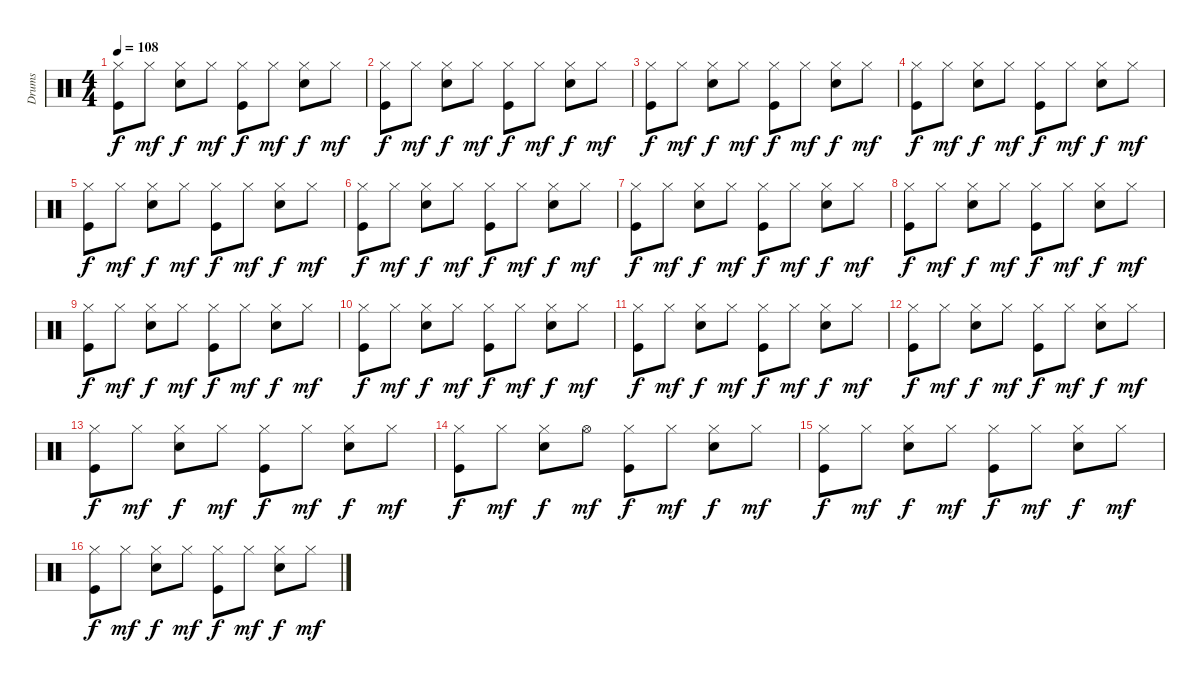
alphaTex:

\track ("Drums" "Drums") {instrument percussion}
\staff {score}
\articulation defaults
\ts (4 4)
\tempo 108
\clef neutral
\ks c
("Hi-Hat (closed)" "Kick (hit)").8{dy f} "Hi-Hat (closed)".8{dy mf} ("Hi-Hat (closed)" "Electric Snare (hit)").8{dy f} "Hi-Hat (closed)".8{dy mf} ("Hi-Hat (closed)" "Kick (hit)").8{dy f} "Hi-Hat (closed)".8{dy mf} ("Hi-Hat (closed)" "Electric Snare (hit)").8{dy f} "Hi-Hat (closed)".8{dy mf} |
("Hi-Hat (closed)" "Kick (hit)").8{dy f} "Hi-Hat (closed)".8{dy mf} ("Hi-Hat (closed)" "Electric Snare (hit)").8{dy f} "Hi-Hat (closed)".8{dy mf} ("Hi-Hat (closed)" "Kick (hit)").8{dy f} "Hi-Hat (closed)".8{dy mf} ("Hi-Hat (closed)" "Electric Snare (hit)").8{dy f} "Hi-Hat (closed)".8{dy mf} |
("Hi-Hat (closed)" "Kick (hit)").8{dy f} "Hi-Hat (closed)".8{dy mf} ("Hi-Hat (closed)" "Electric Snare (hit)").8{dy f} "Hi-Hat (closed)".8{dy mf} ("Hi-Hat (closed)" "Kick (hit)").8{dy f} "Hi-Hat (closed)".8{dy mf} ("Hi-Hat (closed)" "Electric Snare (hit)").8{dy f} "Hi-Hat (closed)".8{dy mf} |
("Hi-Hat (closed)" "Kick (hit)").8{dy f} "Hi-Hat (closed)".8{dy mf} ("Hi-Hat (closed)" "Electric Snare (hit)").8{dy f} "Hi-Hat (closed)".8{dy mf} ("Hi-Hat (closed)" "Kick (hit)").8{dy f} "Hi-Hat (closed)".8{dy mf} ("Hi-Hat (closed)" "Electric Snare (hit)").8{dy f} "Hi-Hat (closed)".8{dy mf} |
("Hi-Hat (closed)" "Kick (hit)").8{dy f} "Hi-Hat (closed)".8{dy mf} ("Hi-Hat (closed)" "Electric Snare (hit)").8{dy f} "Hi-Hat (closed)".8{dy mf} ("Hi-Hat (closed)" "Kick (hit)").8{dy f} "Hi-Hat (closed)".8{dy mf} ("Hi-Hat (closed)" "Electric Snare (hit)").8{dy f} "Hi-Hat (closed)".8{dy mf} |
("Hi-Hat (closed)" "Kick (hit)").8{dy f} "Hi-Hat (closed)".8{dy mf} ("Hi-Hat (closed)" "Electric Snare (hit)").8{dy f} "Hi-Hat (closed)".8{dy mf} ("Hi-Hat (closed)" "Kick (hit)").8{dy f} "Hi-Hat (closed)".8{dy mf} ("Hi-Hat (closed)" "Electric Snare (hit)").8{dy f} "Hi-Hat (closed)".8{dy mf} |
("Hi-Hat (closed)" "Kick (hit)").8{dy f} "Hi-Hat (closed)".8{dy mf} ("Hi-Hat (closed)" "Electric Snare (hit)").8{dy f} "Hi-Hat (closed)".8{dy mf} ("Hi-Hat (closed)" "Kick (hit)").8{dy f} "Hi-Hat (closed)".8{dy mf} ("Hi-Hat (closed)" "Electric Snare (hit)").8{dy f} "Hi-Hat (closed)".8{dy mf} |
("Hi-Hat (closed)" "Kick (hit)").8{dy f} "Hi-Hat (closed)".8{dy mf} ("Hi-Hat (closed)" "Electric Snare (hit)").8{dy f} "Hi-Hat (closed)".8{dy mf} ("Hi-Hat (closed)" "Kick (hit)").8{dy f} "Hi-Hat (closed)".8{dy mf} ("Hi-Hat (closed)" "Electric Snare (hit)").8{dy f} "Hi-Hat (closed)".8{dy mf} |
("Hi-Hat (closed)" "Kick (hit)").8{dy f} "Hi-Hat (closed)".8{dy mf} ("Hi-Hat (closed)" "Electric Snare (hit)").8{dy f} "Hi-Hat (closed)".8{dy mf} ("Hi-Hat (closed)" "Kick (hit)").8{dy f} "Hi-Hat (closed)".8{dy mf} ("Hi-Hat (closed)" "Electric Snare (hit)").8{dy f} "Hi-Hat (closed)".8{dy mf} |
("Hi-Hat (closed)" "Kick (hit)").8{dy f} "Hi-Hat (closed)".8{dy mf} ("Hi-Hat (closed)" "Electric Snare (hit)").8{dy f} "Hi-Hat (closed)".8{dy mf} ("Hi-Hat (closed)" "Kick (hit)").8{dy f} "Hi-Hat (closed)".8{dy mf} ("Hi-Hat (closed)" "Electric Snare (hit)").8{dy f} "Hi-Hat (closed)".8{dy mf} |
("Hi-Hat (closed)" "Kick (hit)").8{dy f} "Hi-Hat (closed)".8{dy mf} ("Hi-Hat (closed)" "Electric Snare (hit)").8{dy f} "Hi-Hat (closed)".8{dy mf} ("Hi-Hat (closed)" "Kick (hit)").8{dy f} "Hi-Hat (closed)".8{dy mf} ("Hi-Hat (closed)" "Electric Snare (hit)").8{dy f} "Hi-Hat (closed)".8{dy mf} |
("Hi-Hat (closed)" "Kick (hit)").8{dy f} "Hi-Hat (closed)".8{dy mf} ("Hi-Hat (closed)" "Electric Snare (hit)").8{dy f} "Hi-Hat (closed)".8{dy mf} ("Hi-Hat (closed)" "Kick (hit)").8{dy f} "Hi-Hat (closed)".8{dy mf} ("Hi-Hat (closed)" "Electric Snare (hit)").8{dy f} "Hi-Hat (closed)".8{dy mf} |
("Hi-Hat (closed)" "Kick (hit)").8{dy f} "Hi-Hat (closed)".8{dy mf} ("Hi-Hat (closed)" "Electric Snare (hit)").8{dy f} "Hi-Hat (closed)".8{dy mf} ("Hi-Hat (closed)" "Kick (hit)").8{dy f} "Hi-Hat (closed)".8{dy mf} ("Hi-Hat (closed)" "Electric Snare (hit)").8{dy f} "Hi-Hat (closed)".8{dy mf} |
("Hi-Hat (closed)" "Kick (hit)").8{dy f} "Hi-Hat (closed)".8{dy mf} ("Hi-Hat (closed)" "Electric Snare (hit)").8{dy f} "Hi-Hat (open)".8{dy mf} ("Hi-Hat (closed)" "Kick (hit)").8{dy f} "Hi-Hat (closed)".8{dy mf} ("Hi-Hat (closed)" "Electric Snare (hit)").8{dy f} "Hi-Hat (closed)".8{dy mf} |
("Hi-Hat (closed)" "Kick (hit)").8{dy f} "Hi-Hat (closed)".8{dy mf} ("Hi-Hat (closed)" "Electric Snare (hit)").8{dy f} "Hi-Hat (closed)".8{dy mf} ("Hi-Hat (closed)" "Kick (hit)").8{dy f} "Hi-Hat (closed)".8{dy mf} ("Hi-Hat (closed)" "Electric Snare (hit)").8{dy f} "Hi-Hat (closed)".8{dy mf} |
("Hi-Hat (closed)" "Kick (hit)").8{dy f} "Hi-Hat (closed)".8{dy mf} ("Hi-Hat (closed)" "Electric Snare (hit)").8{dy f} "Hi-Hat (closed)".8{dy mf} ("Hi-Hat (closed)" "Kick (hit)").8{dy f} "Hi-Hat (closed)".8{dy mf} ("Hi-Hat (closed)" "Electric Snare (hit)").8{dy f} "Hi-Hat (closed)".8{dy mf}
